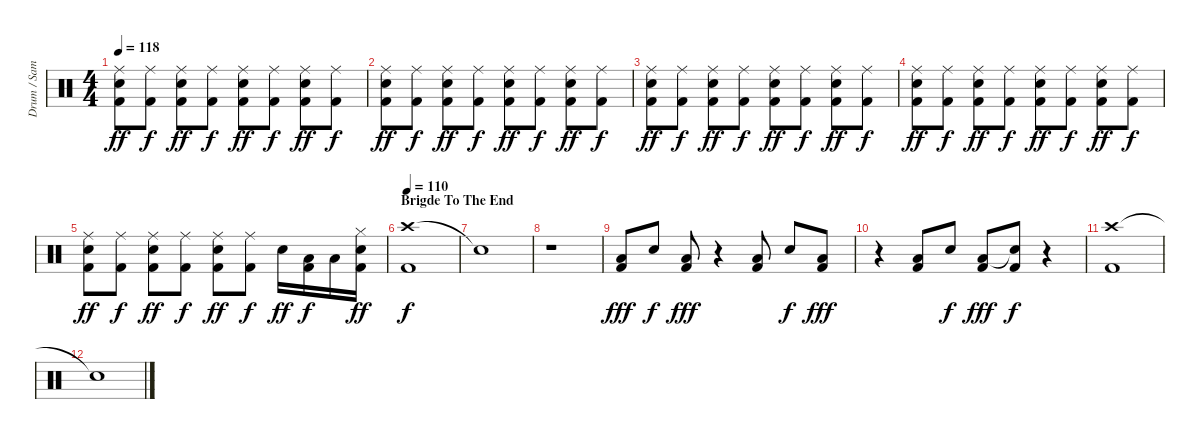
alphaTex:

\track ("Drum / Sam" "Drum / Sam") {instrument percussion}
\staff {score}
\articulation defaults
\ts (4 4)
\tempo 118
\clef neutral
\ks c
("Ride (middle)" "Snare (hit) 2" "Kick (hit) 2").8{dy ff} ("Ride (middle)" "Kick (hit) 2").8{dy f} ("Ride (middle)" "Snare (hit) 2" "Kick (hit) 2").8{dy ff} ("Ride (middle)" "Kick (hit) 2").8{dy f} ("Ride (middle)" "Snare (hit) 2" "Kick (hit) 2").8{dy ff} ("Ride (middle)" "Kick (hit) 2").8{dy f} ("Ride (middle)" "Snare (hit) 2" "Kick (hit) 2").8{dy ff} ("Ride (middle)" "Kick (hit) 2").8{dy f} |
("Ride (middle)" "Snare (hit) 2" "Kick (hit) 2").8{dy ff} ("Ride (middle)" "Kick (hit) 2").8{dy f} ("Ride (middle)" "Snare (hit) 2" "Kick (hit) 2").8{dy ff} ("Ride (middle)" "Kick (hit) 2").8{dy f} ("Ride (middle)" "Snare (hit) 2" "Kick (hit) 2").8{dy ff} ("Ride (middle)" "Kick (hit) 2").8{dy f} ("Ride (middle)" "Snare (hit) 2" "Kick (hit) 2").8{dy ff} ("Ride (middle)" "Kick (hit) 2").8{dy f} |
("Ride (middle)" "Snare (hit) 2" "Kick (hit) 2").8{dy ff} ("Ride (middle)" "Kick (hit) 2").8{dy f} ("Ride (middle)" "Snare (hit) 2" "Kick (hit) 2").8{dy ff} ("Ride (middle)" "Kick (hit) 2").8{dy f} ("Ride (middle)" "Snare (hit) 2" "Kick (hit) 2").8{dy ff} ("Ride (middle)" "Kick (hit) 2").8{dy f} ("Ride (middle)" "Snare (hit) 2" "Kick (hit) 2").8{dy ff} ("Ride (middle)" "Kick (hit) 2").8{dy f} |
("Ride (middle)" "Snare (hit) 2" "Kick (hit) 2").8{dy ff} ("Ride (middle)" "Kick (hit) 2").8{dy f} ("Ride (middle)" "Snare (hit) 2" "Kick (hit) 2").8{dy ff} ("Ride (middle)" "Kick (hit) 2").8{dy f} ("Ride (middle)" "Snare (hit) 2" "Kick (hit) 2").8{dy ff} ("Ride (middle)" "Kick (hit) 2").8{dy f} ("Ride (middle)" "Snare (hit) 2" "Kick (hit) 2").8{dy ff} ("Ride (middle)" "Kick (hit) 2").8{dy f} |
("Ride (middle)" "Snare (hit) 2" "Kick (hit) 2").8{dy ff} ("Ride (middle)" "Kick (hit) 2").8{dy f} ("Ride (middle)" "Snare (hit) 2" "Kick (hit) 2").8{dy ff} ("Ride (middle)" "Kick (hit) 2").8{dy f} ("Ride (middle)" "Snare (hit) 2" "Kick (hit) 2").8{dy ff} ("Ride (middle)" "Kick (hit) 2").8{dy f} "Snare (hit) 2".16{dy ff} ("Low Tom (hit)" "Kick (hit) 2").16{dy f} "Low Tom (hit)".16 ("Hi-Hat (closed)" "Snare (hit) 2" "Kick (hit) 2").16{dy ff} |
\section ("" "Brigde To The End")
\tempo 110
("Crash high (hit)" "Kick (hit) 2").1{dy f} |
"Snare (hit)"{t}.1 |
r.1 |
("Low Tom (hit)" "Kick (hit) 2").8{dy fff} "Snare (hit) 2".8{dy f} ("Low Tom (hit)" "Kick (hit) 2").8{dy fff} r.4 ("Low Tom (hit)" "Kick (hit) 2").8 "Snare (hit) 2".8{dy f} ("Low Tom (hit)" "Kick (hit) 2").8{dy fff} |
r.4 ("Low Tom (hit)" "Kick (hit) 2").8 "Snare (hit) 2".8{dy f} ("Low Tom (hit)" "Kick (hit) 2").8{dy fff} ("Snare (hit) 2"{t} "Kick (hit) 2").8{dy f} r.4 |
("Crash high (hit)" "Kick (hit) 2").1 |
"Snare (hit)"{t}.1
